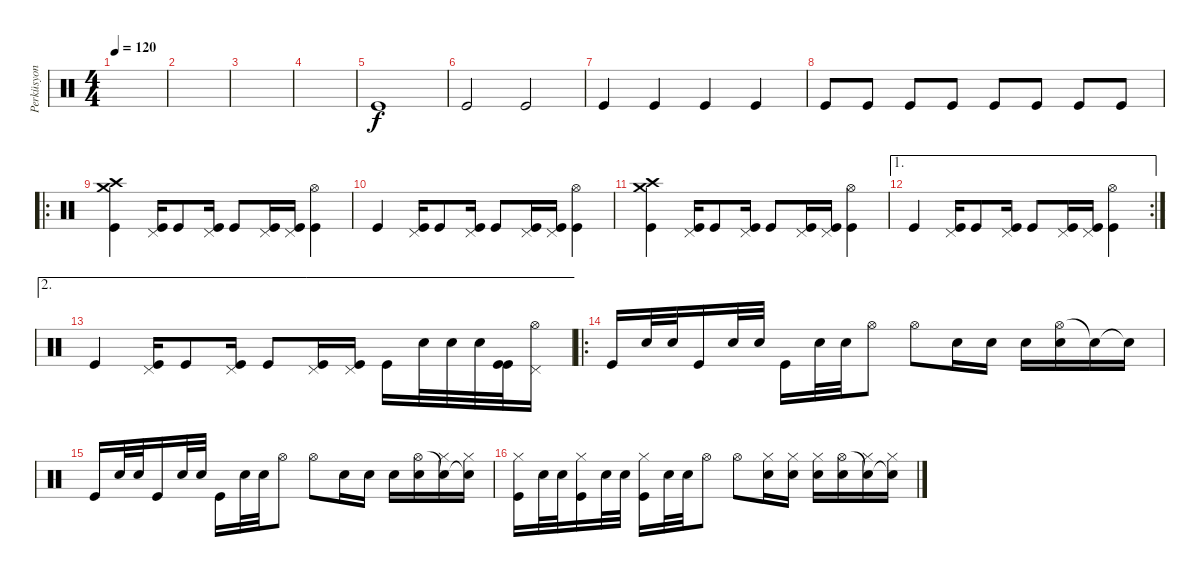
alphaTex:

\track ("Perküsyon" "Perküsyon") {instrument percussion}
\staff {score}
\articulation defaults
\chord ("D")
\ts (4 4)
\tempo 120
\clef neutral
\ks c
|
|
|
|
"Kick (hit)".1 |
"Kick (hit)".2 "Kick (hit)".2 |
"Kick (hit)".4 "Kick (hit)".4 "Kick (hit)".4 "Kick (hit)".4 |
"Kick (hit)".8 "Kick (hit)".8 "Kick (hit)".8 "Kick (hit)".8 "Kick (hit)".8 "Kick (hit)".8 "Kick (hit)".8 "Kick (hit)".8 |
\ro
("Crash high (hit)" "Crash medium (hit)" "Kick (hit)").4 ("Pedal Hi-Hat (hit)" "Kick (hit)").16 "Kick (hit)".8 ("Pedal Hi-Hat (hit)" "Kick (hit)").16 "Kick (hit)".8 ("Pedal Hi-Hat (hit)" "Kick (hit)").16 ("Pedal Hi-Hat (hit)" "Kick (hit)").16 ("Hi-Hat (open)" "Kick (hit)").4 |
"Kick (hit)".4 ("Pedal Hi-Hat (hit)" "Kick (hit)").16 "Kick (hit)".8 ("Pedal Hi-Hat (hit)" "Kick (hit)").16 "Kick (hit)".8 ("Pedal Hi-Hat (hit)" "Kick (hit)").16 ("Pedal Hi-Hat (hit)" "Kick (hit)").16 ("Hi-Hat (open)" "Kick (hit)").4 |
("Crash medium (hit)" "Crash high (hit)" "Kick (hit)").4 ("Pedal Hi-Hat (hit)" "Kick (hit)").16 "Kick (hit)".8 ("Pedal Hi-Hat (hit)" "Kick (hit)").16 "Kick (hit)".8 ("Pedal Hi-Hat (hit)" "Kick (hit)").16 ("Pedal Hi-Hat (hit)" "Kick (hit)").16 ("Hi-Hat (open)" "Kick (hit)").4 |
\ae 1
\rc 2 "Kick (hit)".4
("Pedal Hi-Hat (hit)" "Kick (hit)").16 "Kick (hit)".8 ("Pedal Hi-Hat (hit)" "Kick (hit)").16 "Kick (hit)".8 ("Pedal Hi-Hat (hit)" "Kick (hit)").16 ("Pedal Hi-Hat (hit)" "Kick (hit)").16 ("Hi-Hat (open)" "Kick (hit)").4 |
\ae 2 "Kick (hit)".4
("Pedal Hi-Hat (hit)" "Kick (hit)").16 "Kick (hit)".8 ("Pedal Hi-Hat (hit)" "Kick (hit)").16 "Kick (hit)".8 ("Pedal Hi-Hat (hit)" "Kick (hit)").16 ("Pedal Hi-Hat (hit)" "Kick (hit)").16 "Kick (hit)".16 "Snare (hit) 2".32 "Snare (hit) 2".32 "Snare (hit) 2".32 ("Kick (hit)" "Kick (hit)").32 ("Hi-Hat (open)" "Pedal Hi-Hat (hit)").16 |
\ro "Kick (hit)".16 "Snare (hit) 2".32 "Snare (hit) 2".32 "Kick (hit)".16 "Snare (hit) 2".32 "Snare (hit) 2".32 "Kick (hit)".16 "Snare (hit) 2".32 "Snare (hit) 2".32 "Hi-Hat (open)".8 "Hi-Hat (open)".8 "Electric Snare (hit)".16 "Snare (hit) 2".16 "Electric Snare (hit)".16
("Hi-Hat (open)" "Snare (hit) 2").16 "Snare (hit)"{t}.16 "Snare (hit)"{t}.16 |
"Kick (hit)".16 "Snare (hit) 2".32 "Snare (hit) 2".32 "Kick (hit)".16 "Snare (hit) 2".32 "Snare (hit) 2".32 "Kick (hit)".16 "Snare (hit) 2".32 "Snare (hit) 2".32 "Hi-Hat (open)".8 "Hi-Hat (open)".8 "Electric Snare (hit)".16 "Snare (hit) 2".16 "Electric Snare (hit)".16 ("Hi-Hat (open)" "Snare (hit) 2").16 ("Snare (hit)"{t} "Hi-Hat (closed)").16 ("Snare (hit)"{t} "Hi-Hat (closed)").16 |
("Kick (hit)" "Hi-Hat (closed)").16 "Snare (hit) 2".32 "Snare (hit) 2".32 ("Kick (hit)" "Hi-Hat (closed)").16 "Snare (hit) 2".32 "Snare (hit) 2".32 ("Kick (hit)" "Hi-Hat (closed)").16 "Snare (hit) 2".32 "Snare (hit) 2".32 "Hi-Hat (open)".8 "Hi-Hat (open)".8 ("Electric Snare (hit)" "Hi-Hat (closed)").16 ("Snare (hit) 2" "Hi-Hat (closed)").16 ("Electric Snare (hit)" "Hi-Hat (closed)").16 ("Hi-Hat (open)" "Snare (hit) 2").16 ("Snare (hit)"{t} "Hi-Hat (closed)").16 ("Snare (hit)"{t} "Hi-Hat (closed)").16
